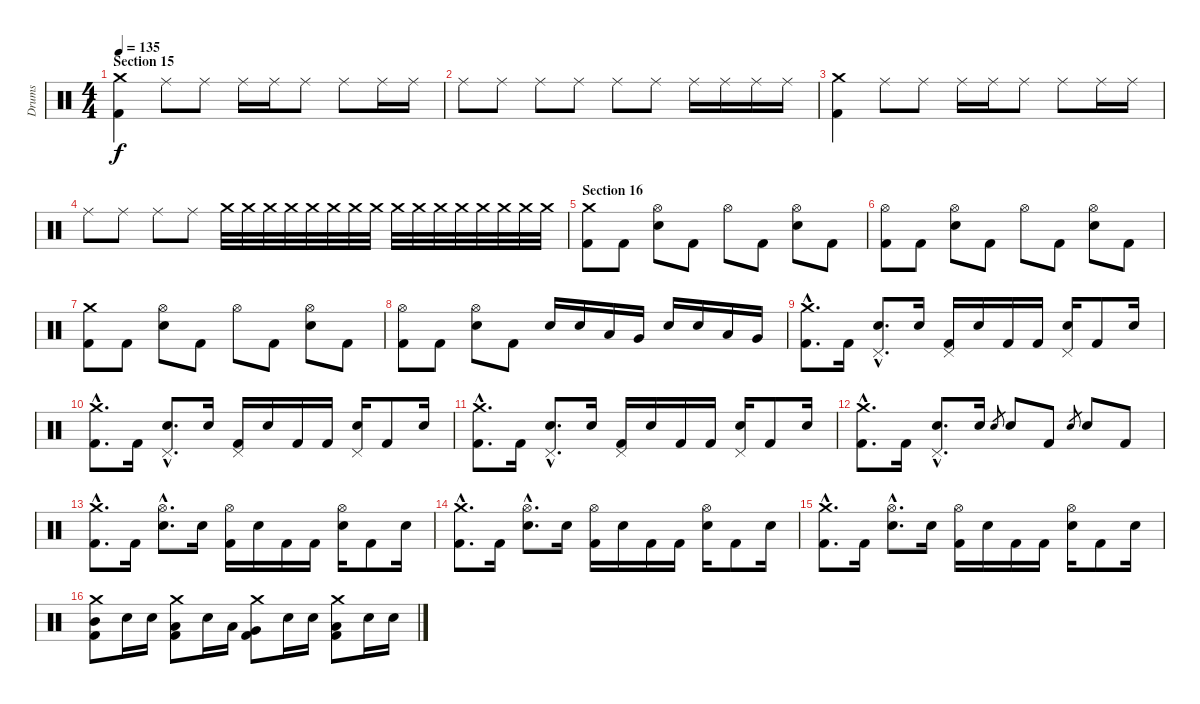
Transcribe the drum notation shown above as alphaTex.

\track ("Drums" "Drums") {instrument percussion}
\staff {score}
\articulation defaults
\ts (4 4)
\section ("" "Section 15")
\tempo 135
\clef neutral
\ks c
("Crash medium (hit)" "Kick (hit) 2").4{dy f} "Ride (middle)".8 "Ride (middle)".8 "Ride (middle)".16 "Ride (middle)".16 "Ride (middle)".8 "Ride (middle)".8 "Ride (middle)".16 "Ride (middle)".16 |
"Ride (middle)".8 "Ride (middle)".8 "Ride (middle)".8 "Ride (middle)".8 "Ride (middle)".8 "Ride (middle)".8 "Ride (middle)".16 "Ride (middle)".16 "Ride (middle)".16 "Ride (middle)".16 |
("Crash medium (hit)" "Kick (hit) 2").4 "Ride (middle)".8 "Ride (middle)".8 "Ride (middle)".16 "Ride (middle)".16 "Ride (middle)".8 "Ride (middle)".8 "Ride (middle)".16 "Ride (middle)".16 |
"Ride (middle)".8 "Ride (middle)".8 "Ride (middle)".8 "Ride (middle)".8{volume 0} "Crash medium (hit)".32{volume 13} "Crash medium (hit)".32 "Crash medium (hit)".32 "Crash medium (hit)".32 "Crash medium (hit)".32 "Crash medium (hit)".32 "Crash medium (hit)".32 "Crash medium (hit)".32 "Crash medium (hit)".32 "Crash medium (hit)".32 "Crash medium (hit)".32 "Crash medium (hit)".32 "Crash medium (hit)".32 "Crash medium (hit)".32 "Crash medium (hit)".32 "Crash medium (hit)".32 |
\section ("" "Section 16")
("Crash medium (hit)" "Kick (hit) 2").8 "Kick (hit) 2".8 ("Hi-Hat (open)" "Electric Snare (hit)").8 "Kick (hit) 2".8 "Hi-Hat (open)".8 "Kick (hit) 2".8 ("Hi-Hat (open)" "Electric Snare (hit)").8 "Kick (hit) 2".8 |
("Hi-Hat (open)" "Kick (hit) 2").8 "Kick (hit) 2".8 ("Hi-Hat (open)" "Electric Snare (hit)").8 "Kick (hit) 2".8 "Hi-Hat (open)".8 "Kick (hit) 2".8 ("Hi-Hat (open)" "Electric Snare (hit)").8 "Kick (hit) 2".8 |
("Crash medium (hit)" "Kick (hit) 2").8 "Kick (hit) 2".8 ("Hi-Hat (open)" "Electric Snare (hit)").8 "Kick (hit) 2".8 "Hi-Hat (open)".8 "Kick (hit) 2".8 ("Hi-Hat (open)" "Electric Snare (hit)").8 "Kick (hit) 2".8 |
("Hi-Hat (open)" "Kick (hit) 2").8 "Kick (hit) 2".8 ("Hi-Hat (open)" "Electric Snare (hit)").8 "Kick (hit) 2".8 "Electric Snare (hit)".16 "Electric Snare (hit)".16 "Low Tom (hit)".16 "Very Low Tom (hit)".16 "Electric Snare (hit)".16 "Electric Snare (hit)".16 "Low Tom (hit)".16 "Very Low Tom (hit)".16 |
("Crash medium (hit)"{hac} "Kick (hit) 2"{hac}).8{d} "Kick (hit) 2".16 ("Pedal Hi-Hat (hit)"{hac} "Electric Snare (hit)"{hac}).8{d} "Electric Snare (hit)".16 ("Pedal Hi-Hat (hit)" "Kick (hit) 2").16 "Electric Snare (hit)".16 "Kick (hit) 2".16 "Kick (hit) 2".16 ("Pedal Hi-Hat (hit)" "Electric Snare (hit)").16 "Kick (hit) 2".8 "Electric Snare (hit)".16 |
("Crash medium (hit)"{hac} "Kick (hit) 2"{hac}).8{d} "Kick (hit) 2".16 ("Pedal Hi-Hat (hit)"{hac} "Electric Snare (hit)"{hac}).8{d} "Electric Snare (hit)".16 ("Pedal Hi-Hat (hit)" "Kick (hit) 2").16 "Electric Snare (hit)".16 "Kick (hit) 2".16 "Kick (hit) 2".16 ("Pedal Hi-Hat (hit)" "Electric Snare (hit)").16 "Kick (hit) 2".8 "Electric Snare (hit)".16 |
("Crash medium (hit)"{hac} "Kick (hit) 2"{hac}).8{d} "Kick (hit) 2".16 ("Pedal Hi-Hat (hit)"{hac} "Electric Snare (hit)"{hac}).8{d} "Electric Snare (hit)".16 ("Pedal Hi-Hat (hit)" "Kick (hit) 2").16 "Electric Snare (hit)".16 "Kick (hit) 2".16 "Kick (hit) 2".16 ("Pedal Hi-Hat (hit)" "Electric Snare (hit)").16 "Kick (hit) 2".8 "Electric Snare (hit)".16 |
("Crash medium (hit)"{hac} "Kick (hit) 2"{hac}).8{d} "Kick (hit) 2".16 ("Pedal Hi-Hat (hit)"{hac} "Electric Snare (hit)"{hac}).8{d} "Electric Snare (hit)".16 "Electric Snare (hit)".8{gr} "Electric Snare (hit)".8 "Kick (hit) 2".8 "Electric Snare (hit)".8{gr} "Electric Snare (hit)".8 "Kick (hit) 2".8 |
("Crash medium (hit)"{hac} "Kick (hit) 2"{hac}).8{d} "Kick (hit) 2".16 ("Hi-Hat (open)"{hac} "Electric Snare (hit)"{hac}).8{d} "Electric Snare (hit)".16 ("Hi-Hat (open)" "Kick (hit) 2").16 "Electric Snare (hit)".16 "Kick (hit) 2".16 "Kick (hit) 2".16 ("Hi-Hat (open)" "Electric Snare (hit)").16 "Kick (hit) 2".8 "Electric Snare (hit)".16 |
("Crash medium (hit)"{hac} "Kick (hit) 2"{hac}).8{d} "Kick (hit) 2".16 ("Hi-Hat (open)"{hac} "Electric Snare (hit)"{hac}).8{d} "Electric Snare (hit)".16 ("Hi-Hat (open)" "Kick (hit) 2").16 "Electric Snare (hit)".16 "Kick (hit) 2".16 "Kick (hit) 2".16 ("Hi-Hat (open)" "Electric Snare (hit)").16 "Kick (hit) 2".8 "Electric Snare (hit)".16 |
("Crash medium (hit)"{hac} "Kick (hit) 2"{hac}).8{d} "Kick (hit) 2".16 ("Hi-Hat (open)"{hac} "Electric Snare (hit)"{hac}).8{d} "Electric Snare (hit)".16 ("Hi-Hat (open)" "Kick (hit) 2").16 "Electric Snare (hit)".16 "Kick (hit) 2".16 "Kick (hit) 2".16 ("Hi-Hat (open)" "Electric Snare (hit)").16 "Kick (hit) 2".8 "Electric Snare (hit)".16 |
("Crash medium (hit)" "Kick (hit) 2" "Mid Tom (hit)").8 "Electric Snare (hit)".16 "Electric Snare (hit)".16 ("Crash medium (hit)" "Kick (hit) 2" "Low Tom (hit)").8 "Electric Snare (hit)".16 "Low Tom (hit)".16 ("Crash medium (hit)" "Kick (hit) 2" "Very Low Tom (hit)").8 "Electric Snare (hit)".16 "Electric Snare (hit)".16 ("Crash medium (hit)" "Kick (hit) 2" "Low Tom (hit)").8 "Electric Snare (hit)".16 "Electric Snare (hit)".16
